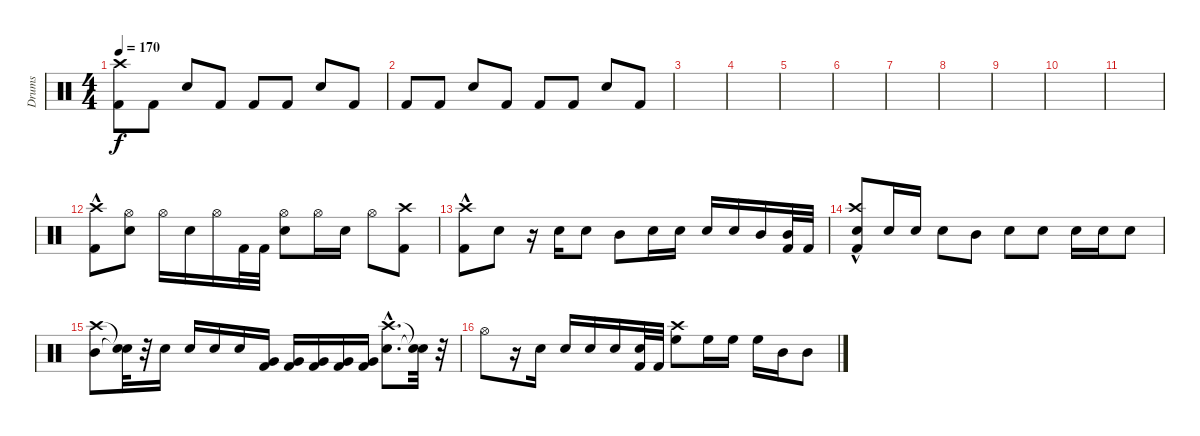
\track ("Drums" "Drums") {instrument percussion}
\staff {score}
\articulation defaults
\ts (4 4)
\tempo 170
\clef neutral
\ks c
("Kick (hit) 2" "Crash high (hit)").8{dy f} "Kick (hit) 2".8 "Snare (hit) 2".8 "Kick (hit) 2".8 "Kick (hit) 2".8 "Kick (hit) 2".8 "Snare (hit) 2".8 "Kick (hit) 2".8 |
"Kick (hit) 2".8 "Kick (hit) 2".8 "Snare (hit) 2".8 "Kick (hit) 2".8 "Kick (hit) 2".8 "Kick (hit) 2".8 "Snare (hit) 2".8 "Kick (hit) 2".8 |
|
|
|
|
|
|
|
|
|
("Kick (hit) 2"{hac} "Crash high (hit)").8 ("Snare (hit) 2" "Hi-Hat (open)").8 "Hi-Hat (open)".16 "Snare (hit) 2".16 "Hi-Hat (open)".16 "Kick (hit) 2".32 "Kick (hit) 2".32 ("Snare (hit) 2" "Hi-Hat (open)").8 "Hi-Hat (open)".16 "Snare (hit) 2".16 "Hi-Hat (open)".8 ("Kick (hit) 2" "Crash high (hit)").8 |
("Crash high (hit)" "Kick (hit) 2"{hac}).8 "Snare (hit) 2".8 r.16 "Snare (hit) 2".16 "Snare (hit) 2".8 "Mid Tom (hit)".8 "Snare (hit) 2".16 "Snare (hit) 2".16 "Snare (hit) 2".16 "Snare (hit) 2".16 "Mid Tom (hit)".16 ("Mid Tom (hit)" "Kick (hit) 2").32 "Kick (hit) 2".32 |
("Kick (hit) 2"{hac} "Crash high (hit)" "Snare (hit) 2").8 "Snare (hit) 2".16 "Snare (hit) 2".16 "Snare (hit) 2".8 "Mid Tom (hit)".8 "Snare (hit) 2".8 "Snare (hit) 2".8 "Snare (hit) 2".16 "Snare (hit) 2".16 "Snare (hit) 2".8 |
("Mid Tom (hit)" "Crash high (hit)").8 ("Snare (hit)"{t} "Snare (hit)"{t}).32 r.32 "Snare (hit) 2".16 "Snare (hit) 2".16 "Snare (hit) 2".16 "Snare (hit) 2".16 ("Very Low Tom (hit)" "Kick (hit) 2").16 ("Very Low Tom (hit)" "Kick (hit) 2").16 ("Very Low Tom (hit)" "Kick (hit) 2").16 ("Very Low Tom (hit)" "Kick (hit) 2").16 ("Very Low Tom (hit)" "Kick (hit) 2").16 ("Snare (hit) 2"{hac} "Crash high (hit)"{hac}).8{d} ("Snare (hit)"{t} "Snare (hit)"{t}).32 r.32 |
"Hi-Hat (open)".8 r.16 "Snare (hit) 2".16 "Snare (hit) 2".16 "Snare (hit) 2".16 "Snare (hit) 2".16 ("Snare (hit) 2" "Kick (hit) 2").32 "Kick (hit) 2".32 ("High Floor Tom (hit)" "Crash high (hit)").8 "High Floor Tom (hit)".16 "High Floor Tom (hit)".16 "High Floor Tom (hit)".16 "Mid Tom (hit)".16 "Mid Tom (hit)".8
